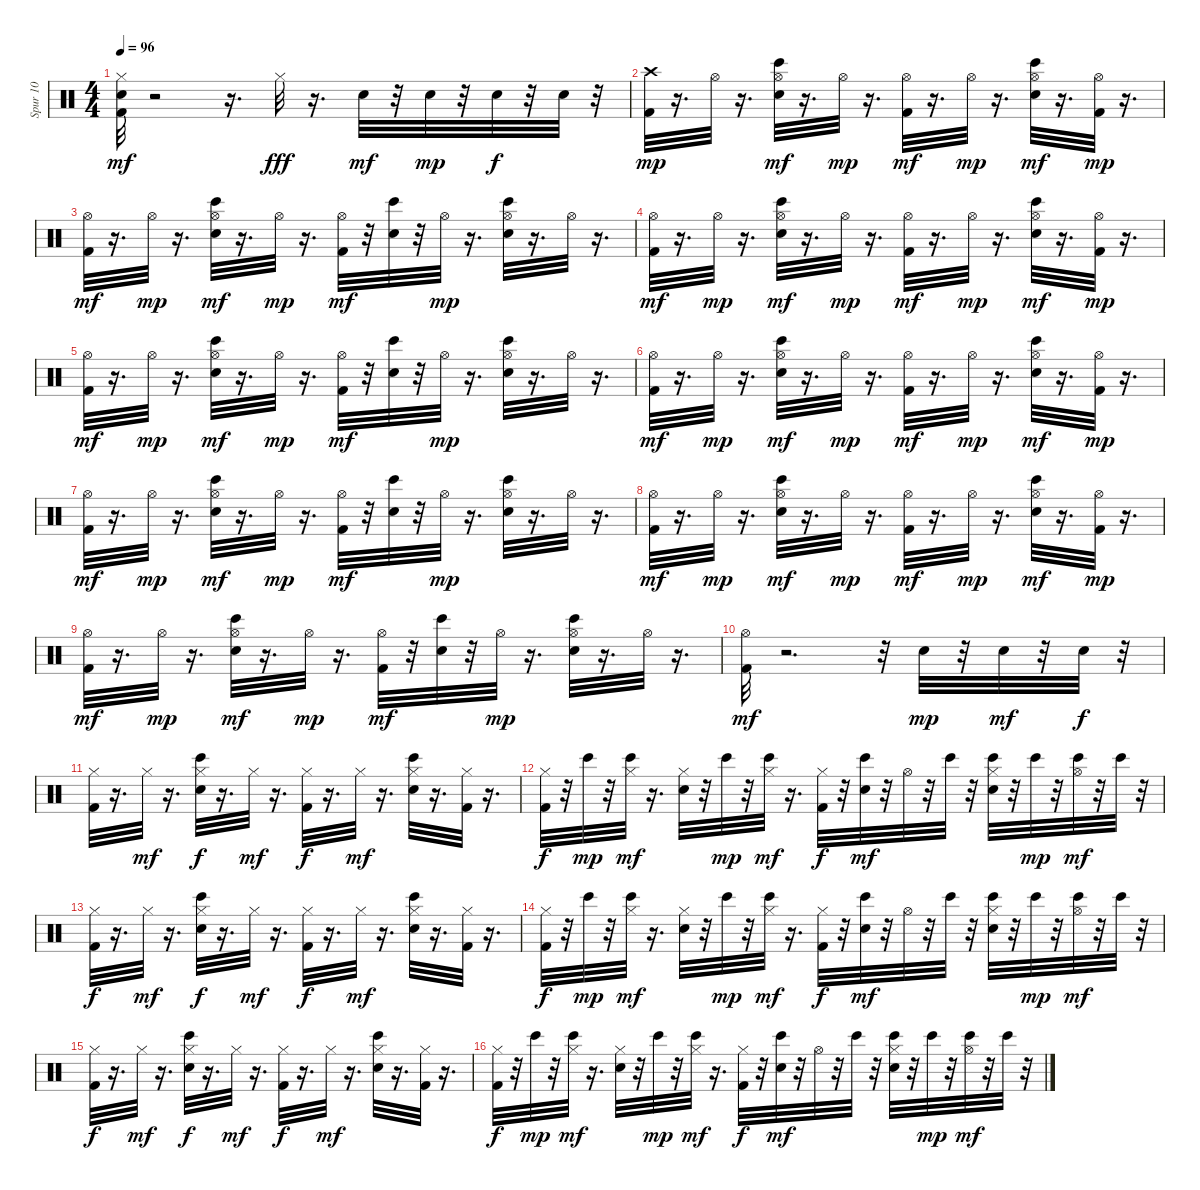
\track ("Spur 10" "Spur 10") {instrument percussion}
\staff {score}
\articulation defaults
\ts (4 4)
\tempo 96
\clef neutral
\ks c
("Hi-Hat (closed)" "Snare (hit) 2" "Kick (hit) 2").32{dy mf} r.2 r.16{d} "Hi-Hat (closed)".32{dy fff} r.16{d} "Snare (hit) 2".32{dy mf} r.32 "Snare (hit) 2".32{dy mp} r.32 "Snare (hit) 2".32{dy f} r.32 "Snare (hit) 2".32 r.32 |
("Crash high (hit)" "Kick (hit) 2").32{dy mp} r.16{d} "Hi-Hat (open)".32 r.16{d} ("Hi-Hat (open)" "Snare (hit) 2" "Bongo High (hit)").32{dy mf} r.16{d} "Hi-Hat (open)".32{dy mp} r.16{d} ("Hi-Hat (open)" "Kick (hit) 2").32{dy mf} r.16{d} "Hi-Hat (open)".32{dy mp} r.16{d} ("Hi-Hat (open)" "Snare (hit) 2" "Bongo High (hit)").32{dy mf} r.16{d} ("Hi-Hat (open)" "Kick (hit) 2").32{dy mp} r.16{d} |
("Hi-Hat (open)" "Kick (hit) 2").32{dy mf} r.16{d} "Hi-Hat (open)".32{dy mp} r.16{d} ("Hi-Hat (open)" "Snare (hit) 2" "Bongo High (hit)").32{dy mf} r.16{d} "Hi-Hat (open)".32{dy mp} r.16{d} ("Hi-Hat (open)" "Kick (hit) 2").32{dy mf} r.32 ("Snare (hit) 2" "Bongo High (hit)").32 r.32 "Hi-Hat (open)".32{dy mp} r.16{d} ("Hi-Hat (open)" "Snare (hit) 2" "Bongo High (hit)").32 r.16{d} "Hi-Hat (open)".32 r.16{d} |
("Hi-Hat (open)" "Kick (hit) 2").32{dy mf} r.16{d} "Hi-Hat (open)".32{dy mp} r.16{d} ("Hi-Hat (open)" "Snare (hit) 2" "Bongo High (hit)").32{dy mf} r.16{d} "Hi-Hat (open)".32{dy mp} r.16{d} ("Hi-Hat (open)" "Kick (hit) 2").32{dy mf} r.16{d} "Hi-Hat (open)".32{dy mp} r.16{d} ("Hi-Hat (open)" "Snare (hit) 2" "Bongo High (hit)").32{dy mf} r.16{d} ("Hi-Hat (open)" "Kick (hit) 2").32{dy mp} r.16{d} |
("Hi-Hat (open)" "Kick (hit) 2").32{dy mf} r.16{d} "Hi-Hat (open)".32{dy mp} r.16{d} ("Hi-Hat (open)" "Snare (hit) 2" "Bongo High (hit)").32{dy mf} r.16{d} "Hi-Hat (open)".32{dy mp} r.16{d} ("Hi-Hat (open)" "Kick (hit) 2").32{dy mf} r.32 ("Snare (hit) 2" "Bongo High (hit)").32 r.32 "Hi-Hat (open)".32{dy mp} r.16{d} ("Hi-Hat (open)" "Snare (hit) 2" "Bongo High (hit)").32 r.16{d} "Hi-Hat (open)".32 r.16{d} |
("Hi-Hat (open)" "Kick (hit) 2").32{dy mf} r.16{d} "Hi-Hat (open)".32{dy mp} r.16{d} ("Hi-Hat (open)" "Snare (hit) 2" "Bongo High (hit)").32{dy mf} r.16{d} "Hi-Hat (open)".32{dy mp} r.16{d} ("Hi-Hat (open)" "Kick (hit) 2").32{dy mf} r.16{d} "Hi-Hat (open)".32{dy mp} r.16{d} ("Hi-Hat (open)" "Snare (hit) 2" "Bongo High (hit)").32{dy mf} r.16{d} ("Hi-Hat (open)" "Kick (hit) 2").32{dy mp} r.16{d} |
("Hi-Hat (open)" "Kick (hit) 2").32{dy mf} r.16{d} "Hi-Hat (open)".32{dy mp} r.16{d} ("Hi-Hat (open)" "Snare (hit) 2" "Bongo High (hit)").32{dy mf} r.16{d} "Hi-Hat (open)".32{dy mp} r.16{d} ("Hi-Hat (open)" "Kick (hit) 2").32{dy mf} r.32 ("Snare (hit) 2" "Bongo High (hit)").32 r.32 "Hi-Hat (open)".32{dy mp} r.16{d} ("Hi-Hat (open)" "Snare (hit) 2" "Bongo High (hit)").32 r.16{d} "Hi-Hat (open)".32 r.16{d} |
("Hi-Hat (open)" "Kick (hit) 2").32{dy mf} r.16{d} "Hi-Hat (open)".32{dy mp} r.16{d} ("Hi-Hat (open)" "Snare (hit) 2" "Bongo High (hit)").32{dy mf} r.16{d} "Hi-Hat (open)".32{dy mp} r.16{d} ("Hi-Hat (open)" "Kick (hit) 2").32{dy mf} r.16{d} "Hi-Hat (open)".32{dy mp} r.16{d} ("Hi-Hat (open)" "Snare (hit) 2" "Bongo High (hit)").32{dy mf} r.16{d} ("Hi-Hat (open)" "Kick (hit) 2").32{dy mp} r.16{d} |
("Hi-Hat (open)" "Kick (hit) 2").32{dy mf} r.16{d} "Hi-Hat (open)".32{dy mp} r.16{d} ("Hi-Hat (open)" "Snare (hit) 2" "Bongo High (hit)").32{dy mf} r.16{d} "Hi-Hat (open)".32{dy mp} r.16{d} ("Hi-Hat (open)" "Kick (hit) 2").32{dy mf} r.32 ("Snare (hit) 2" "Bongo High (hit)").32 r.32 "Hi-Hat (open)".32{dy mp} r.16{d} ("Hi-Hat (open)" "Snare (hit) 2" "Bongo High (hit)").32 r.16{d} "Hi-Hat (open)".32 r.16{d} |
("Hi-Hat (open)" "Kick (hit) 2").32{dy mf} r.2{d} r.32 "Snare (hit) 2".32{dy mp} r.32 "Snare (hit) 2".32{dy mf} r.32 "Snare (hit) 2".32{dy f} r.32 |
("Hi-Hat (closed)" "Kick (hit) 2").32 r.16{d} "Hi-Hat (closed)".32{dy mf} r.16{d} ("Hi-Hat (closed)" "Snare (hit) 2" "Bongo High (hit)").32{dy f} r.16{d} "Hi-Hat (closed)".32{dy mf} r.16{d} ("Hi-Hat (closed)" "Kick (hit) 2").32{dy f} r.16{d} "Hi-Hat (closed)".32{dy mf} r.16{d} ("Hi-Hat (closed)" "Snare (hit) 2" "Bongo High (hit)").32 r.16{d} ("Hi-Hat (closed)" "Kick (hit) 2").32 r.16{d} |
("Hi-Hat (closed)" "Kick (hit) 2").32{dy f} r.32 "Bongo High (hit)".32{dy mp} r.32 ("Hi-Hat (closed)" "Bongo High (hit)").32{dy mf} r.16{d} ("Hi-Hat (closed)" "Snare (hit) 2").32 r.32 "Bongo High (hit)".32{dy mp} r.32 ("Hi-Hat (closed)" "Bongo High (hit)").32{dy mf} r.16{d} ("Hi-Hat (closed)" "Kick (hit) 2").32{dy f} r.32 ("Snare (hit) 2" "Bongo High (hit)").32{dy mf} r.32 "Hi-Hat (open)".32 r.32 "Bongo High (hit)".32 r.32 ("Hi-Hat (closed)" "Snare (hit) 2" "Bongo High (hit)").32 r.32 "Bongo High (hit)".32{dy mp} r.32 ("Hi-Hat (open)" "Bongo High (hit)").32{dy mf} r.32 "Bongo High (hit)".32 r.32 |
("Hi-Hat (closed)" "Kick (hit) 2").32{dy f} r.16{d} "Hi-Hat (closed)".32{dy mf} r.16{d} ("Hi-Hat (closed)" "Snare (hit) 2" "Bongo High (hit)").32{dy f} r.16{d} "Hi-Hat (closed)".32{dy mf} r.16{d} ("Hi-Hat (closed)" "Kick (hit) 2").32{dy f} r.16{d} "Hi-Hat (closed)".32{dy mf} r.16{d} ("Hi-Hat (closed)" "Snare (hit) 2" "Bongo High (hit)").32 r.16{d} ("Hi-Hat (closed)" "Kick (hit) 2").32 r.16{d} |
("Hi-Hat (closed)" "Kick (hit) 2").32{dy f} r.32 "Bongo High (hit)".32{dy mp} r.32 ("Hi-Hat (closed)" "Bongo High (hit)").32{dy mf} r.16{d} ("Hi-Hat (closed)" "Snare (hit) 2").32 r.32 "Bongo High (hit)".32{dy mp} r.32 ("Hi-Hat (closed)" "Bongo High (hit)").32{dy mf} r.16{d} ("Hi-Hat (closed)" "Kick (hit) 2").32{dy f} r.32 ("Snare (hit) 2" "Bongo High (hit)").32{dy mf} r.32 "Hi-Hat (open)".32 r.32 "Bongo High (hit)".32 r.32 ("Hi-Hat (closed)" "Snare (hit) 2" "Bongo High (hit)").32 r.32 "Bongo High (hit)".32{dy mp} r.32 ("Hi-Hat (open)" "Bongo High (hit)").32{dy mf} r.32 "Bongo High (hit)".32 r.32 |
("Hi-Hat (closed)" "Kick (hit) 2").32{dy f} r.16{d} "Hi-Hat (closed)".32{dy mf} r.16{d} ("Hi-Hat (closed)" "Snare (hit) 2" "Bongo High (hit)").32{dy f} r.16{d} "Hi-Hat (closed)".32{dy mf} r.16{d} ("Hi-Hat (closed)" "Kick (hit) 2").32{dy f} r.16{d} "Hi-Hat (closed)".32{dy mf} r.16{d} ("Hi-Hat (closed)" "Snare (hit) 2" "Bongo High (hit)").32 r.16{d} ("Hi-Hat (closed)" "Kick (hit) 2").32 r.16{d} |
("Hi-Hat (closed)" "Kick (hit) 2").32{dy f} r.32 "Bongo High (hit)".32{dy mp} r.32 ("Hi-Hat (closed)" "Bongo High (hit)").32{dy mf} r.16{d} ("Hi-Hat (closed)" "Snare (hit) 2").32 r.32 "Bongo High (hit)".32{dy mp} r.32 ("Hi-Hat (closed)" "Bongo High (hit)").32{dy mf} r.16{d} ("Hi-Hat (closed)" "Kick (hit) 2").32{dy f} r.32 ("Snare (hit) 2" "Bongo High (hit)").32{dy mf} r.32 "Hi-Hat (open)".32 r.32 "Bongo High (hit)".32 r.32 ("Hi-Hat (closed)" "Snare (hit) 2" "Bongo High (hit)").32 r.32 "Bongo High (hit)".32{dy mp} r.32 ("Hi-Hat (open)" "Bongo High (hit)").32{dy mf} r.32 "Bongo High (hit)".32 r.32
